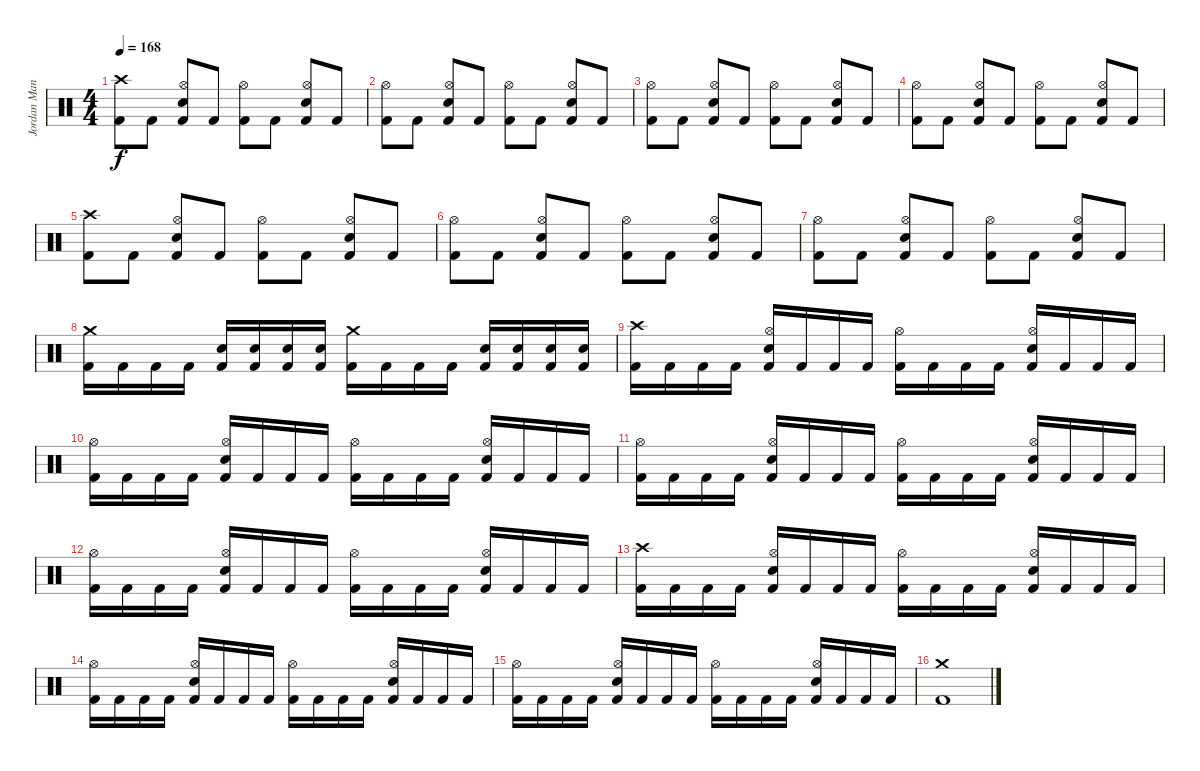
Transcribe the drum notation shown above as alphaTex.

\track ("Jordan Mancino" "Jordan Man") {instrument percussion}
\staff {score}
\articulation defaults
\ts (4 4)
\tempo 168
\clef neutral
\ks c
("Crash high (hit)" "Kick (hit) 2").8{dy f} "Kick (hit) 2".8 ("Hi-Hat (open)" "Electric Snare (hit)" "Kick (hit) 2").8 "Kick (hit) 2".8 ("Hi-Hat (open)" "Kick (hit) 2").8 "Kick (hit) 2".8 ("Hi-Hat (open)" "Electric Snare (hit)" "Kick (hit) 2").8 "Kick (hit) 2".8 |
("Hi-Hat (open)" "Kick (hit) 2").8 "Kick (hit) 2".8 ("Hi-Hat (open)" "Electric Snare (hit)" "Kick (hit) 2").8 "Kick (hit) 2".8 ("Hi-Hat (open)" "Kick (hit) 2").8 "Kick (hit) 2".8 ("Hi-Hat (open)" "Electric Snare (hit)" "Kick (hit) 2").8 "Kick (hit) 2".8 |
("Hi-Hat (open)" "Kick (hit) 2").8 "Kick (hit) 2".8 ("Hi-Hat (open)" "Electric Snare (hit)" "Kick (hit) 2").8 "Kick (hit) 2".8 ("Hi-Hat (open)" "Kick (hit) 2").8 "Kick (hit) 2".8 ("Hi-Hat (open)" "Electric Snare (hit)" "Kick (hit) 2").8 "Kick (hit) 2".8 |
("Hi-Hat (open)" "Kick (hit) 2").8 "Kick (hit) 2".8 ("Hi-Hat (open)" "Electric Snare (hit)" "Kick (hit) 2").8 "Kick (hit) 2".8 ("Hi-Hat (open)" "Kick (hit) 2").8 "Kick (hit) 2".8 ("Hi-Hat (open)" "Electric Snare (hit)" "Kick (hit) 2").8 "Kick (hit) 2".8 |
("Crash high (hit)" "Kick (hit) 2").8 "Kick (hit) 2".8 ("Hi-Hat (open)" "Electric Snare (hit)" "Kick (hit) 2").8 "Kick (hit) 2".8 ("Hi-Hat (open)" "Kick (hit) 2").8 "Kick (hit) 2".8 ("Hi-Hat (open)" "Electric Snare (hit)" "Kick (hit) 2").8 "Kick (hit) 2".8 |
("Hi-Hat (open)" "Kick (hit) 2").8 "Kick (hit) 2".8 ("Hi-Hat (open)" "Electric Snare (hit)" "Kick (hit) 2").8 "Kick (hit) 2".8 ("Hi-Hat (open)" "Kick (hit) 2").8 "Kick (hit) 2".8 ("Hi-Hat (open)" "Electric Snare (hit)" "Kick (hit) 2").8 "Kick (hit) 2".8 |
("Hi-Hat (open)" "Kick (hit) 2").8 "Kick (hit) 2".8 ("Hi-Hat (open)" "Electric Snare (hit)" "Kick (hit) 2").8 "Kick (hit) 2".8 ("Hi-Hat (open)" "Kick (hit) 2").8 "Kick (hit) 2".8 ("Hi-Hat (open)" "Electric Snare (hit)" "Kick (hit) 2").8 "Kick (hit) 2".8 |
("Crash medium (hit)" "Kick (hit) 2").16 "Kick (hit) 2".16 "Kick (hit) 2".16 "Kick (hit) 2".16 ("Electric Snare (hit)" "Kick (hit) 2").16 ("Electric Snare (hit)" "Kick (hit) 2").16 ("Electric Snare (hit)" "Kick (hit) 2").16 ("Electric Snare (hit)" "Kick (hit) 2").16 ("Crash medium (hit)" "Kick (hit) 2").16 "Kick (hit) 2".16 "Kick (hit) 2".16 "Kick (hit) 2".16 ("Electric Snare (hit)" "Kick (hit) 2").16 ("Electric Snare (hit)" "Kick (hit) 2").16 ("Electric Snare (hit)" "Kick (hit) 2").16 ("Electric Snare (hit)" "Kick (hit) 2").16 |
("Crash high (hit)" "Kick (hit) 2").16 "Kick (hit) 2".16 "Kick (hit) 2".16 "Kick (hit) 2".16 ("Hi-Hat (open)" "Electric Snare (hit)" "Kick (hit) 2").16 "Kick (hit) 2".16 "Kick (hit) 2".16 "Kick (hit) 2".16 ("Hi-Hat (open)" "Kick (hit) 2").16 "Kick (hit) 2".16 "Kick (hit) 2".16 "Kick (hit) 2".16 ("Hi-Hat (open)" "Electric Snare (hit)" "Kick (hit) 2").16 "Kick (hit) 2".16 "Kick (hit) 2".16 "Kick (hit) 2".16 |
("Hi-Hat (open)" "Kick (hit) 2").16 "Kick (hit) 2".16 "Kick (hit) 2".16 "Kick (hit) 2".16 ("Hi-Hat (open)" "Electric Snare (hit)" "Kick (hit) 2").16 "Kick (hit) 2".16 "Kick (hit) 2".16 "Kick (hit) 2".16 ("Hi-Hat (open)" "Kick (hit) 2").16 "Kick (hit) 2".16 "Kick (hit) 2".16 "Kick (hit) 2".16 ("Hi-Hat (open)" "Electric Snare (hit)" "Kick (hit) 2").16 "Kick (hit) 2".16 "Kick (hit) 2".16 "Kick (hit) 2".16 |
("Hi-Hat (open)" "Kick (hit) 2").16 "Kick (hit) 2".16 "Kick (hit) 2".16 "Kick (hit) 2".16 ("Hi-Hat (open)" "Electric Snare (hit)" "Kick (hit) 2").16 "Kick (hit) 2".16 "Kick (hit) 2".16 "Kick (hit) 2".16 ("Hi-Hat (open)" "Kick (hit) 2").16 "Kick (hit) 2".16 "Kick (hit) 2".16 "Kick (hit) 2".16 ("Hi-Hat (open)" "Electric Snare (hit)" "Kick (hit) 2").16 "Kick (hit) 2".16 "Kick (hit) 2".16 "Kick (hit) 2".16 |
("Hi-Hat (open)" "Kick (hit) 2").16 "Kick (hit) 2".16 "Kick (hit) 2".16 "Kick (hit) 2".16 ("Hi-Hat (open)" "Electric Snare (hit)" "Kick (hit) 2").16 "Kick (hit) 2".16 "Kick (hit) 2".16 "Kick (hit) 2".16 ("Hi-Hat (open)" "Kick (hit) 2").16 "Kick (hit) 2".16 "Kick (hit) 2".16 "Kick (hit) 2".16 ("Hi-Hat (open)" "Electric Snare (hit)" "Kick (hit) 2").16 "Kick (hit) 2".16 "Kick (hit) 2".16 "Kick (hit) 2".16 |
("Crash high (hit)" "Kick (hit) 2").16 "Kick (hit) 2".16 "Kick (hit) 2".16 "Kick (hit) 2".16 ("Hi-Hat (open)" "Electric Snare (hit)" "Kick (hit) 2").16 "Kick (hit) 2".16 "Kick (hit) 2".16 "Kick (hit) 2".16 ("Hi-Hat (open)" "Kick (hit) 2").16 "Kick (hit) 2".16 "Kick (hit) 2".16 "Kick (hit) 2".16 ("Hi-Hat (open)" "Electric Snare (hit)" "Kick (hit) 2").16 "Kick (hit) 2".16 "Kick (hit) 2".16 "Kick (hit) 2".16 |
("Hi-Hat (open)" "Kick (hit) 2").16 "Kick (hit) 2".16 "Kick (hit) 2".16 "Kick (hit) 2".16 ("Hi-Hat (open)" "Electric Snare (hit)" "Kick (hit) 2").16 "Kick (hit) 2".16 "Kick (hit) 2".16 "Kick (hit) 2".16 ("Hi-Hat (open)" "Kick (hit) 2").16 "Kick (hit) 2".16 "Kick (hit) 2".16 "Kick (hit) 2".16 ("Hi-Hat (open)" "Electric Snare (hit)" "Kick (hit) 2").16 "Kick (hit) 2".16 "Kick (hit) 2".16 "Kick (hit) 2".16 |
("Hi-Hat (open)" "Kick (hit) 2").16 "Kick (hit) 2".16 "Kick (hit) 2".16 "Kick (hit) 2".16 ("Hi-Hat (open)" "Electric Snare (hit)" "Kick (hit) 2").16 "Kick (hit) 2".16 "Kick (hit) 2".16 "Kick (hit) 2".16 ("Hi-Hat (open)" "Kick (hit) 2").16 "Kick (hit) 2".16 "Kick (hit) 2".16 "Kick (hit) 2".16 ("Hi-Hat (open)" "Electric Snare (hit)" "Kick (hit) 2").16 "Kick (hit) 2".16 "Kick (hit) 2".16 "Kick (hit) 2".16 |
("Crash medium (hit)" "Kick (hit) 2").1
